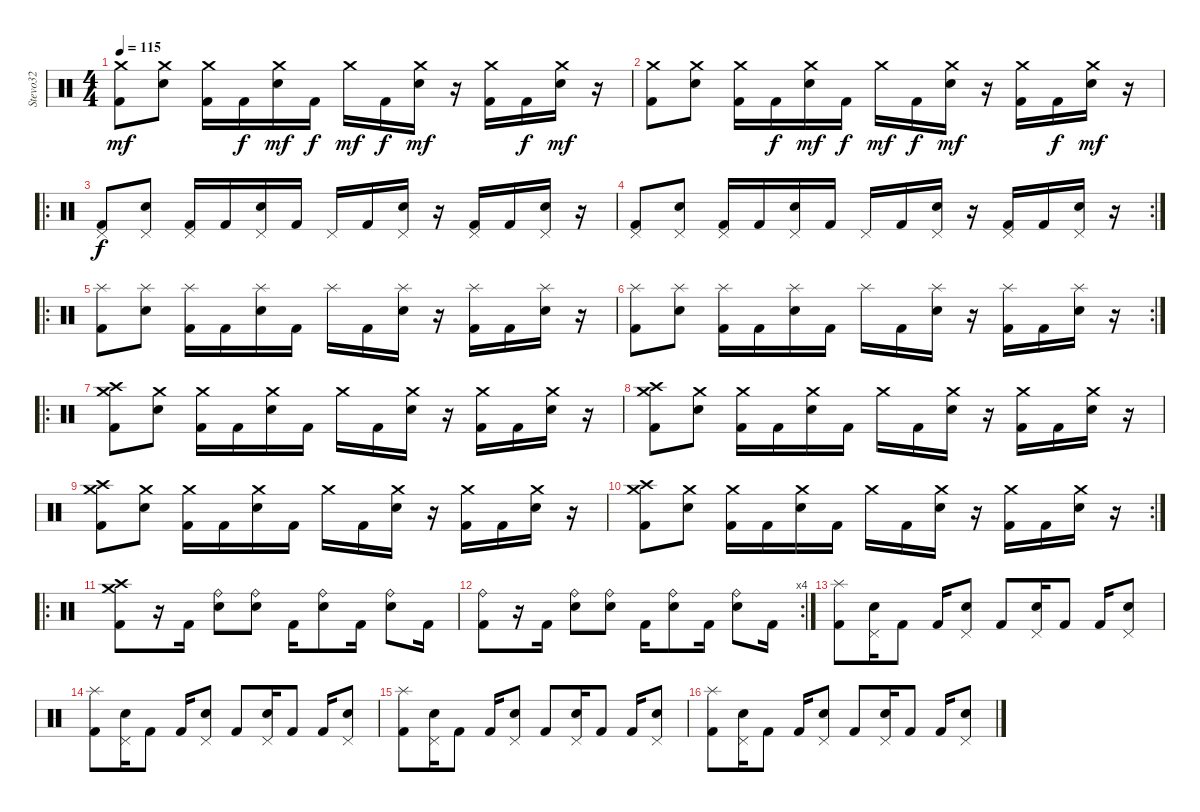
\track ("Stevo32" "Stevo32") {instrument percussion}
\staff {score}
\articulation defaults
\ts (4 4)
\tempo 115
\clef neutral
\ks c
("Crash medium (hit)" "Kick (hit) 2").8{dy mf} ("Crash medium (hit)" "Electric Snare (hit)").8 ("Crash medium (hit)" "Kick (hit) 2").16 "Kick (hit) 2".16{dy f} ("Crash medium (hit)" "Electric Snare (hit)").16{dy mf} "Kick (hit) 2".16{dy f} "Crash medium (hit)".16{dy mf} "Kick (hit) 2".16{dy f} ("Crash medium (hit)" "Electric Snare (hit)").16{dy mf} r.16 ("Crash medium (hit)" "Kick (hit) 2").16 "Kick (hit) 2".16{dy f} ("Crash medium (hit)" "Electric Snare (hit)").16{dy mf} r.16 |
("Crash medium (hit)" "Kick (hit) 2").8 ("Crash medium (hit)" "Electric Snare (hit)").8 ("Crash medium (hit)" "Kick (hit) 2").16 "Kick (hit) 2".16{dy f} ("Crash medium (hit)" "Electric Snare (hit)").16{dy mf} "Kick (hit) 2".16{dy f} "Crash medium (hit)".16{dy mf} "Kick (hit) 2".16{dy f} ("Crash medium (hit)" "Electric Snare (hit)").16{dy mf} r.16 ("Crash medium (hit)" "Kick (hit) 2").16 "Kick (hit) 2".16{dy f} ("Crash medium (hit)" "Electric Snare (hit)").16{dy mf} r.16 |
\ro
("Pedal Hi-Hat (hit)" "Kick (hit) 2").8{dy f} ("Pedal Hi-Hat (hit)" "Electric Snare (hit)").8 ("Pedal Hi-Hat (hit)" "Kick (hit) 2").16 "Kick (hit) 2".16 ("Pedal Hi-Hat (hit)" "Electric Snare (hit)").16 "Kick (hit) 2".16 "Pedal Hi-Hat (hit)".16 "Kick (hit) 2".16 ("Pedal Hi-Hat (hit)" "Electric Snare (hit)").16 r.16 ("Pedal Hi-Hat (hit)" "Kick (hit) 2").16 "Kick (hit) 2".16 ("Pedal Hi-Hat (hit)" "Electric Snare (hit)").16 r.16 |
\rc 2
("Pedal Hi-Hat (hit)" "Kick (hit) 2").8 ("Pedal Hi-Hat (hit)" "Electric Snare (hit)").8 ("Pedal Hi-Hat (hit)" "Kick (hit) 2").16 "Kick (hit) 2".16 ("Pedal Hi-Hat (hit)" "Electric Snare (hit)").16 "Kick (hit) 2".16 "Pedal Hi-Hat (hit)".16 "Kick (hit) 2".16 ("Pedal Hi-Hat (hit)" "Electric Snare (hit)").16 r.16 ("Pedal Hi-Hat (hit)" "Kick (hit) 2").16 "Kick (hit) 2".16 ("Pedal Hi-Hat (hit)" "Electric Snare (hit)").16 r.16 |
\ro
("Splash (hit)" "Kick (hit) 2").8 ("Splash (hit)" "Electric Snare (hit)").8 ("Splash (hit)" "Kick (hit) 2").16 "Kick (hit) 2".16 ("Splash (hit)" "Electric Snare (hit)").16 "Kick (hit) 2".16 "Splash (hit)".16 "Kick (hit) 2".16 ("Splash (hit)" "Electric Snare (hit)").16 r.16 ("Splash (hit)" "Kick (hit) 2").16 "Kick (hit) 2".16 ("Splash (hit)" "Electric Snare (hit)").16 r.16 |
\rc 2
("Splash (hit)" "Kick (hit) 2").8 ("Splash (hit)" "Electric Snare (hit)").8 ("Splash (hit)" "Kick (hit) 2").16 "Kick (hit) 2".16 ("Splash (hit)" "Electric Snare (hit)").16 "Kick (hit) 2".16 "Splash (hit)".16 "Kick (hit) 2".16 ("Splash (hit)" "Electric Snare (hit)").16 r.16 ("Splash (hit)" "Kick (hit) 2").16 "Kick (hit) 2".16 ("Splash (hit)" "Electric Snare (hit)").16 r.16 |
\ro
("Crash medium (hit)" "Crash high (hit)" "Kick (hit) 2").8 ("Crash medium (hit)" "Electric Snare (hit)").8 ("Crash medium (hit)" "Kick (hit) 2").16 "Kick (hit) 2".16 ("Crash medium (hit)" "Electric Snare (hit)").16 "Kick (hit) 2".16 "Crash medium (hit)".16 "Kick (hit) 2".16 ("Crash medium (hit)" "Electric Snare (hit)").16 r.16 ("Crash medium (hit)" "Kick (hit) 2").16 "Kick (hit) 2".16 ("Crash medium (hit)" "Electric Snare (hit)").16 r.16 |
("Crash medium (hit)" "Crash high (hit)" "Kick (hit) 2").8 ("Crash medium (hit)" "Electric Snare (hit)").8 ("Crash medium (hit)" "Kick (hit) 2").16 "Kick (hit) 2".16 ("Crash medium (hit)" "Electric Snare (hit)").16 "Kick (hit) 2".16 "Crash medium (hit)".16 "Kick (hit) 2".16 ("Crash medium (hit)" "Electric Snare (hit)").16 r.16 ("Crash medium (hit)" "Kick (hit) 2").16 "Kick (hit) 2".16 ("Crash medium (hit)" "Electric Snare (hit)").16 r.16 |
("Crash medium (hit)" "Crash high (hit)" "Kick (hit) 2").8 ("Crash medium (hit)" "Electric Snare (hit)").8 ("Crash medium (hit)" "Kick (hit) 2").16 "Kick (hit) 2".16 ("Crash medium (hit)" "Electric Snare (hit)").16 "Kick (hit) 2".16 "Crash medium (hit)".16 "Kick (hit) 2".16 ("Crash medium (hit)" "Electric Snare (hit)").16 r.16 ("Crash medium (hit)" "Kick (hit) 2").16 "Kick (hit) 2".16 ("Crash medium (hit)" "Electric Snare (hit)").16 r.16 |
\rc 2
("Crash medium (hit)" "Crash high (hit)" "Kick (hit) 2").8 ("Crash medium (hit)" "Electric Snare (hit)").8 ("Crash medium (hit)" "Kick (hit) 2").16 "Kick (hit) 2".16 ("Crash medium (hit)" "Electric Snare (hit)").16 "Kick (hit) 2".16 "Crash medium (hit)".16 "Kick (hit) 2".16 ("Crash medium (hit)" "Electric Snare (hit)").16 r.16 ("Crash medium (hit)" "Kick (hit) 2").16 "Kick (hit) 2".16 ("Crash medium (hit)" "Electric Snare (hit)").16 r.16 |
\ro
("Crash medium (hit)" "Crash high (hit)" "Kick (hit) 2").8 r.16 "Kick (hit) 2".16 ("Ride (bell)" "Electric Snare (hit)").8 ("Ride (bell)" "Electric Snare (hit)").8 "Kick (hit) 2".16 ("Ride (bell)" "Electric Snare (hit)").8 "Kick (hit) 2".16 ("Ride (bell)" "Electric Snare (hit)").8 "Kick (hit) 2".16 |
\rc 4
("Ride (bell)" "Kick (hit) 2").8 r.16 "Kick (hit) 2".16 ("Ride (bell)" "Electric Snare (hit)").8 ("Ride (bell)" "Electric Snare (hit)").8 "Kick (hit) 2".16 ("Ride (bell)" "Electric Snare (hit)").8 "Kick (hit) 2".16 ("Ride (bell)" "Electric Snare (hit)").8 "Kick (hit) 2".16 |
("Splash (hit)" "Kick (hit) 2").8 ("Pedal Hi-Hat (hit)" "Electric Snare (hit)").16 "Kick (hit) 2".8 "Kick (hit) 2".16 ("Pedal Hi-Hat (hit)" "Electric Snare (hit)").8 "Kick (hit) 2".8 ("Pedal Hi-Hat (hit)" "Electric Snare (hit)").16 "Kick (hit) 2".8 "Kick (hit) 2".16 ("Pedal Hi-Hat (hit)" "Electric Snare (hit)").8 |
("Splash (hit)" "Kick (hit) 2").8 ("Pedal Hi-Hat (hit)" "Electric Snare (hit)").16 "Kick (hit) 2".8 "Kick (hit) 2".16 ("Pedal Hi-Hat (hit)" "Electric Snare (hit)").8 "Kick (hit) 2".8 ("Pedal Hi-Hat (hit)" "Electric Snare (hit)").16 "Kick (hit) 2".8 "Kick (hit) 2".16 ("Pedal Hi-Hat (hit)" "Electric Snare (hit)").8 |
("Splash (hit)" "Kick (hit) 2").8 ("Pedal Hi-Hat (hit)" "Electric Snare (hit)").16 "Kick (hit) 2".8 "Kick (hit) 2".16 ("Pedal Hi-Hat (hit)" "Electric Snare (hit)").8 "Kick (hit) 2".8 ("Pedal Hi-Hat (hit)" "Electric Snare (hit)").16 "Kick (hit) 2".8 "Kick (hit) 2".16 ("Pedal Hi-Hat (hit)" "Electric Snare (hit)").8 |
("Splash (hit)" "Kick (hit) 2").8 ("Pedal Hi-Hat (hit)" "Electric Snare (hit)").16 "Kick (hit) 2".8 "Kick (hit) 2".16 ("Pedal Hi-Hat (hit)" "Electric Snare (hit)").8 "Kick (hit) 2".8 ("Pedal Hi-Hat (hit)" "Electric Snare (hit)").16 "Kick (hit) 2".8 "Kick (hit) 2".16 ("Pedal Hi-Hat (hit)" "Electric Snare (hit)").8
